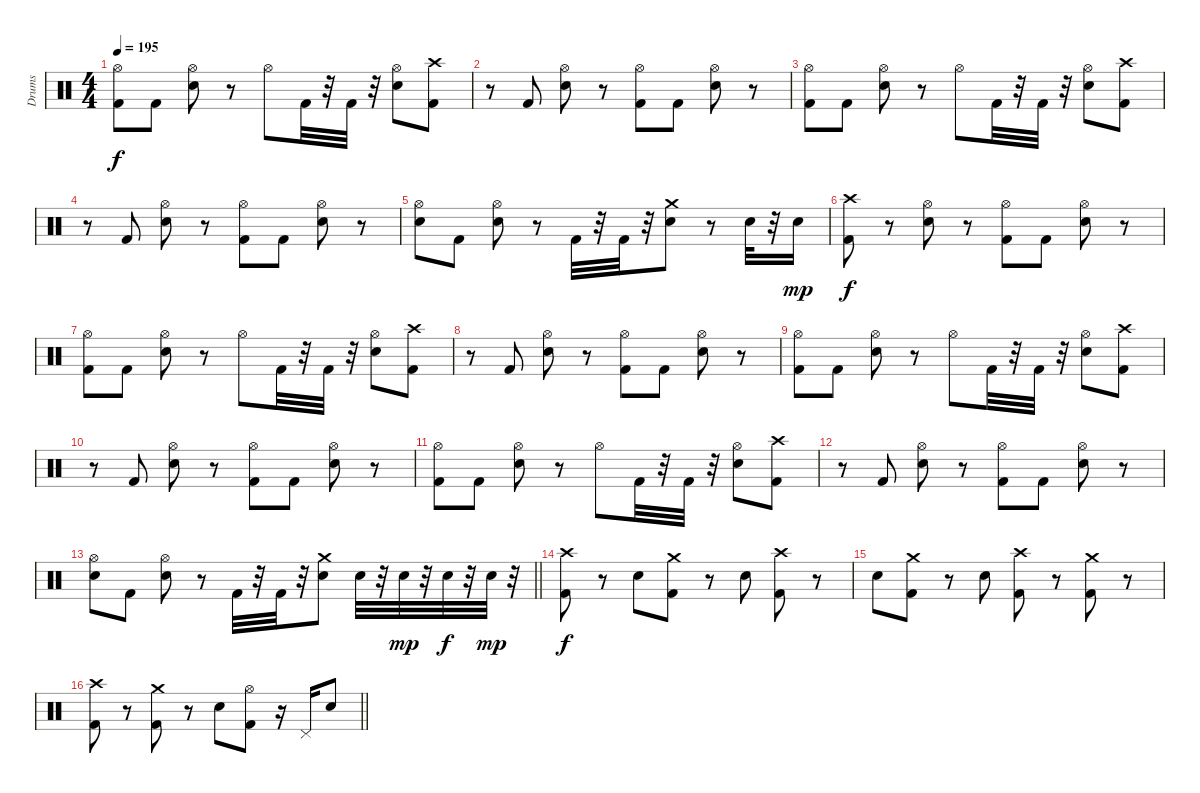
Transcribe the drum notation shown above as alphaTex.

\track ("Drums" "Drums") {instrument percussion}
\staff {score}
\articulation defaults
\ts (4 4)
\tempo 195
\clef neutral
\ks c
("Kick (hit) 2" "Hi-Hat (open)").8{dy f} "Kick (hit) 2".8 ("Electric Snare (hit)" "Hi-Hat (open)").8 r.8 "Hi-Hat (open)".8 "Kick (hit) 2".32 r.32 "Kick (hit) 2".32 r.32 ("Electric Snare (hit)" "Hi-Hat (open)").8 ("Kick (hit) 2" "Crash high (hit)").8 |
r.8 "Kick (hit) 2".8 ("Electric Snare (hit)" "Hi-Hat (open)").8 r.8 ("Kick (hit) 2" "Hi-Hat (open)").8 "Kick (hit) 2".8 ("Electric Snare (hit)" "Hi-Hat (open)").8 r.8 |
("Kick (hit) 2" "Hi-Hat (open)").8 "Kick (hit) 2".8 ("Electric Snare (hit)" "Hi-Hat (open)").8 r.8 "Hi-Hat (open)".8 "Kick (hit) 2".32 r.32 "Kick (hit) 2".32 r.32 ("Electric Snare (hit)" "Hi-Hat (open)").8 ("Kick (hit) 2" "Crash high (hit)").8 |
r.8 "Kick (hit) 2".8 ("Electric Snare (hit)" "Hi-Hat (open)").8 r.8 ("Kick (hit) 2" "Hi-Hat (open)").8 "Kick (hit) 2".8 ("Electric Snare (hit)" "Hi-Hat (open)").8 r.8 |
("Hi-Hat (open)" "Electric Snare (hit)").8 "Kick (hit) 2".8 ("Electric Snare (hit)" "Hi-Hat (open)").8 r.8 "Kick (hit) 2".32 r.32 "Kick (hit) 2".32 r.32 ("Electric Snare (hit)" "Crash medium (hit)").8 r.8 "Electric Snare (hit)".32 r.32 "Electric Snare (hit)".16{dy mp} |
("Kick (hit) 2" "Crash high (hit)").8{dy f} r.8 ("Electric Snare (hit)" "Hi-Hat (open)").8 r.8 ("Kick (hit) 2" "Hi-Hat (open)").8 "Kick (hit) 2".8 ("Electric Snare (hit)" "Hi-Hat (open)").8 r.8 |
("Kick (hit) 2" "Hi-Hat (open)").8 "Kick (hit) 2".8 ("Electric Snare (hit)" "Hi-Hat (open)").8 r.8 "Hi-Hat (open)".8 "Kick (hit) 2".32 r.32 "Kick (hit) 2".32 r.32 ("Electric Snare (hit)" "Hi-Hat (open)").8 ("Kick (hit) 2" "Crash high (hit)").8 |
r.8 "Kick (hit) 2".8 ("Electric Snare (hit)" "Hi-Hat (open)").8 r.8 ("Kick (hit) 2" "Hi-Hat (open)").8 "Kick (hit) 2".8 ("Electric Snare (hit)" "Hi-Hat (open)").8 r.8 |
("Kick (hit) 2" "Hi-Hat (open)").8 "Kick (hit) 2".8 ("Electric Snare (hit)" "Hi-Hat (open)").8 r.8 "Hi-Hat (open)".8 "Kick (hit) 2".32 r.32 "Kick (hit) 2".32 r.32 ("Electric Snare (hit)" "Hi-Hat (open)").8 ("Kick (hit) 2" "Crash high (hit)").8 |
r.8 "Kick (hit) 2".8 ("Electric Snare (hit)" "Hi-Hat (open)").8 r.8 ("Kick (hit) 2" "Hi-Hat (open)").8 "Kick (hit) 2".8 ("Electric Snare (hit)" "Hi-Hat (open)").8 r.8 |
("Kick (hit) 2" "Hi-Hat (open)").8 "Kick (hit) 2".8 ("Electric Snare (hit)" "Hi-Hat (open)").8 r.8 "Hi-Hat (open)".8 "Kick (hit) 2".32 r.32 "Kick (hit) 2".32 r.32 ("Electric Snare (hit)" "Hi-Hat (open)").8 ("Kick (hit) 2" "Crash high (hit)").8 |
r.8 "Kick (hit) 2".8 ("Electric Snare (hit)" "Hi-Hat (open)").8 r.8 ("Kick (hit) 2" "Hi-Hat (open)").8 "Kick (hit) 2".8 ("Electric Snare (hit)" "Hi-Hat (open)").8 r.8 |
\barLineRight lightlight
("Hi-Hat (open)" "Electric Snare (hit)").8 "Kick (hit) 2".8 ("Electric Snare (hit)" "Hi-Hat (open)").8 r.8 "Kick (hit) 2".32 r.32 "Kick (hit) 2".32 r.32 ("Electric Snare (hit)" "Crash medium (hit)").8 "Electric Snare (hit)".32 r.32 "Electric Snare (hit)".32{dy mp} r.32 "Electric Snare (hit)".32{dy f} r.32 "Electric Snare (hit)".32{dy mp} r.32 |
("Kick (hit) 2" "Crash high (hit)").8{dy f} r.8 "Electric Snare (hit)".8 ("Kick (hit) 2" "Crash medium (hit)").8 r.8 "Electric Snare (hit)".8 ("Kick (hit) 2" "Crash high (hit)").8 r.8 |
"Electric Snare (hit)".8 ("Kick (hit) 2" "Crash medium (hit)").8 r.8 "Electric Snare (hit)".8 ("Kick (hit) 2" "Crash high (hit)").8 r.8 ("Crash medium (hit)" "Kick (hit) 2").8 r.8 |
\barLineRight lightlight
("Kick (hit) 2" "Crash high (hit)").8 r.8 ("Crash medium (hit)" "Kick (hit) 2").8 r.8 "Electric Snare (hit)".8 ("Kick (hit) 2" "Hi-Hat (open)").8 r.16 "Pedal Hi-Hat (hit)".16 "Electric Snare (hit)".8
